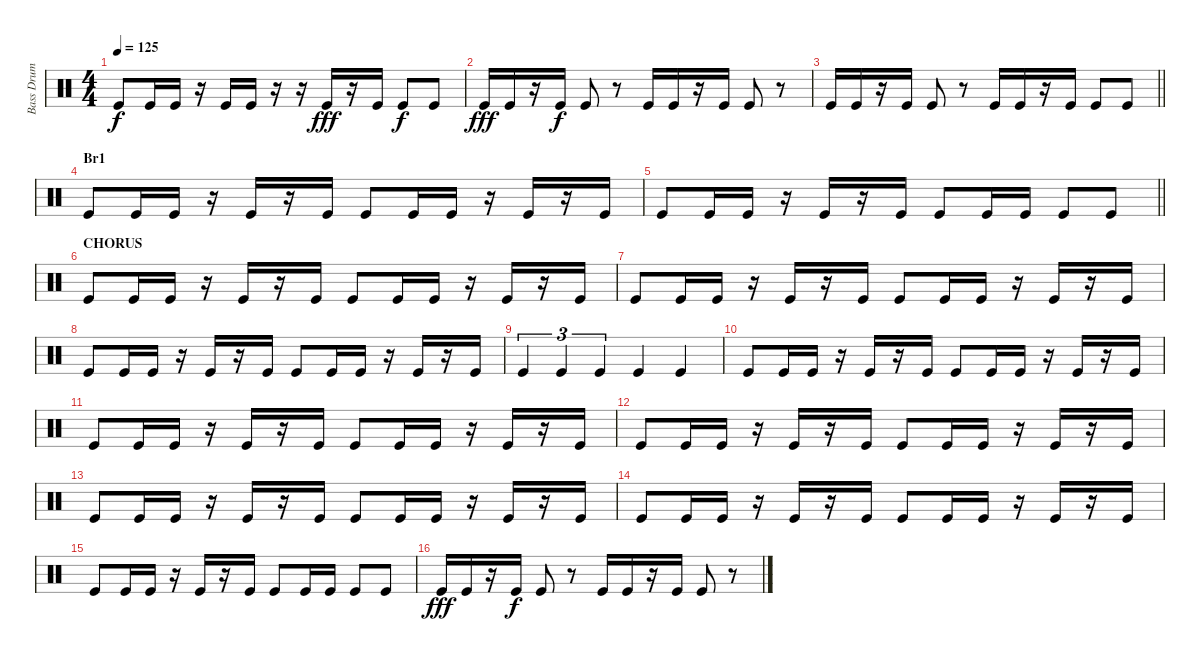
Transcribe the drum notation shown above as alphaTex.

\track ("Bass Drum Boost" "Bass Drum ") {instrument percussion}
\staff {score}
\articulation defaults
\ts (4 4)
\tempo 125
\clef neutral
\ks c "Kick (hit)".8{dy f} "Kick (hit)".16 "Kick (hit)".16
r.16 "Kick (hit)".16 "Kick (hit)".16 r.16 r.16 "Kick (hit)".16{dy fff} r.16 "Kick (hit)".16 "Kick (hit)".8{dy f} "Kick (hit)".8 |
"Kick (hit)".16{dy fff} "Kick (hit)".16 r.16 "Kick (hit)".16{dy f} "Kick (hit)".8 r.8 "Kick (hit)".16 "Kick (hit)".16 r.16 "Kick (hit)".16 "Kick (hit)".8 r.8 |
\barLineRight lightlight "Kick (hit)".16 "Kick (hit)".16
r.16 "Kick (hit)".16 "Kick (hit)".8 r.8 "Kick (hit)".16 "Kick (hit)".16 r.16 "Kick (hit)".16 "Kick (hit)".8 "Kick (hit)".8 |
\section ("" "Br1")
"Kick (hit)".8 "Kick (hit)".16 "Kick (hit)".16 r.16 "Kick (hit)".16 r.16 "Kick (hit)".16 "Kick (hit)".8 "Kick (hit)".16 "Kick (hit)".16 r.16 "Kick (hit)".16 r.16 "Kick (hit)".16 |
\barLineRight lightlight "Kick (hit)".8 "Kick (hit)".16 "Kick (hit)".16
r.16 "Kick (hit)".16 r.16 "Kick (hit)".16 "Kick (hit)".8 "Kick (hit)".16 "Kick (hit)".16 "Kick (hit)".8 "Kick (hit)".8 |
\section ("" "CHORUS")
"Kick (hit)".8 "Kick (hit)".16 "Kick (hit)".16 r.16 "Kick (hit)".16 r.16 "Kick (hit)".16 "Kick (hit)".8 "Kick (hit)".16 "Kick (hit)".16 r.16 "Kick (hit)".16 r.16 "Kick (hit)".16 |
"Kick (hit)".8 "Kick (hit)".16 "Kick (hit)".16 r.16 "Kick (hit)".16 r.16 "Kick (hit)".16 "Kick (hit)".8 "Kick (hit)".16 "Kick (hit)".16 r.16 "Kick (hit)".16 r.16 "Kick (hit)".16 |
"Kick (hit)".8 "Kick (hit)".16 "Kick (hit)".16 r.16 "Kick (hit)".16 r.16 "Kick (hit)".16 "Kick (hit)".8 "Kick (hit)".16 "Kick (hit)".16 r.16 "Kick (hit)".16 r.16 "Kick (hit)".16 |
"Kick (hit)".4{tu (3 2)} "Kick (hit)".4{tu (3 2)} "Kick (hit)".4{tu (3 2)} "Kick (hit)".4 "Kick (hit)".4 |
"Kick (hit)".8 "Kick (hit)".16 "Kick (hit)".16 r.16 "Kick (hit)".16 r.16 "Kick (hit)".16 "Kick (hit)".8 "Kick (hit)".16 "Kick (hit)".16 r.16 "Kick (hit)".16 r.16 "Kick (hit)".16 |
"Kick (hit)".8 "Kick (hit)".16 "Kick (hit)".16 r.16 "Kick (hit)".16 r.16 "Kick (hit)".16 "Kick (hit)".8 "Kick (hit)".16 "Kick (hit)".16 r.16 "Kick (hit)".16 r.16 "Kick (hit)".16 |
"Kick (hit)".8 "Kick (hit)".16 "Kick (hit)".16 r.16 "Kick (hit)".16 r.16 "Kick (hit)".16 "Kick (hit)".8 "Kick (hit)".16 "Kick (hit)".16 r.16 "Kick (hit)".16 r.16 "Kick (hit)".16 |
"Kick (hit)".8 "Kick (hit)".16 "Kick (hit)".16 r.16 "Kick (hit)".16 r.16 "Kick (hit)".16 "Kick (hit)".8 "Kick (hit)".16 "Kick (hit)".16 r.16 "Kick (hit)".16 r.16 "Kick (hit)".16 |
"Kick (hit)".8 "Kick (hit)".16 "Kick (hit)".16 r.16 "Kick (hit)".16 r.16 "Kick (hit)".16 "Kick (hit)".8 "Kick (hit)".16 "Kick (hit)".16 r.16 "Kick (hit)".16 r.16 "Kick (hit)".16 |
"Kick (hit)".8 "Kick (hit)".16 "Kick (hit)".16 r.16 "Kick (hit)".16 r.16 "Kick (hit)".16 "Kick (hit)".8 "Kick (hit)".16 "Kick (hit)".16 "Kick (hit)".8 "Kick (hit)".8 |
"Kick (hit)".16{dy fff} "Kick (hit)".16 r.16 "Kick (hit)".16{dy f} "Kick (hit)".8 r.8 "Kick (hit)".16 "Kick (hit)".16 r.16 "Kick (hit)".16 "Kick (hit)".8 r.8
